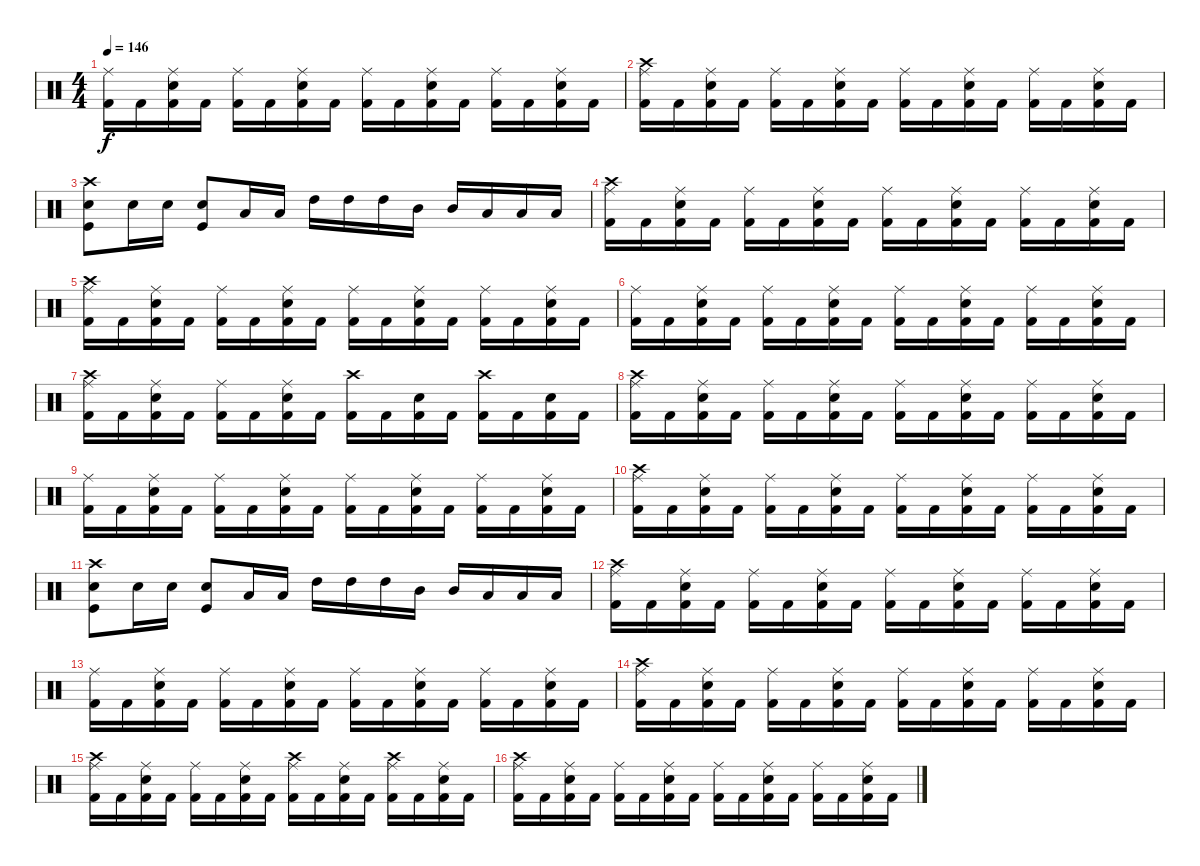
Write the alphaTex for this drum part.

\track "" {instrument percussion}
\staff {score}
\articulation defaults
\ts (4 4)
\tempo 146
\clef neutral
\ks c
("Ride (middle)" "Kick (hit) 2").16{dy f} "Kick (hit) 2".16 ("Electric Snare (hit)" "Ride (middle)" "Kick (hit) 2").16 "Kick (hit) 2".16 ("Ride (middle)" "Kick (hit) 2").16 "Kick (hit) 2".16 ("Electric Snare (hit)" "Ride (middle)" "Kick (hit) 2").16 "Kick (hit) 2".16 ("Ride (middle)" "Kick (hit) 2").16 "Kick (hit) 2".16 ("Electric Snare (hit)" "Ride (middle)" "Kick (hit) 2").16 "Kick (hit) 2".16 ("Ride (middle)" "Kick (hit) 2").16 "Kick (hit) 2".16 ("Electric Snare (hit)" "Ride (middle)" "Kick (hit) 2").16 "Kick (hit) 2".16 |
("Crash high (hit)" "Ride (middle)" "Kick (hit) 2").16 "Kick (hit) 2".16 ("Electric Snare (hit)" "Ride (middle)" "Kick (hit) 2").16 "Kick (hit) 2".16 ("Ride (middle)" "Kick (hit) 2").16 "Kick (hit) 2".16 ("Electric Snare (hit)" "Ride (middle)" "Kick (hit) 2").16 "Kick (hit) 2".16 ("Ride (middle)" "Kick (hit) 2").16 "Kick (hit) 2".16 ("Electric Snare (hit)" "Ride (middle)" "Kick (hit) 2").16 "Kick (hit) 2".16 ("Ride (middle)" "Kick (hit) 2").16 "Kick (hit) 2".16 ("Electric Snare (hit)" "Ride (middle)" "Kick (hit) 2").16 "Kick (hit) 2".16 |
("Crash high (hit)" "Kick (hit)" "Snare (hit) 2").8 "Snare (hit) 2".16 "Snare (hit) 2".16 ("Snare (hit) 2" "Kick (hit)").8 "Low Tom (hit)".16 "Low Tom (hit)".16 "High Tom (hit)".16 "High Tom (hit)".16 "High Tom (hit)".16 "Mid Tom (hit)".16 "Mid Tom (hit)".16 "Low Tom (hit)".16 "Low Tom (hit)".16 "Low Tom (hit)".16 |
("Crash high (hit)" "Ride (middle)" "Kick (hit) 2").16 "Kick (hit) 2".16 ("Electric Snare (hit)" "Ride (middle)" "Kick (hit) 2").16 "Kick (hit) 2".16 ("Ride (middle)" "Kick (hit) 2").16 "Kick (hit) 2".16 ("Electric Snare (hit)" "Ride (middle)" "Kick (hit) 2").16 "Kick (hit) 2".16 ("Ride (middle)" "Kick (hit) 2").16 "Kick (hit) 2".16 ("Electric Snare (hit)" "Ride (middle)" "Kick (hit) 2").16 "Kick (hit) 2".16 ("Ride (middle)" "Kick (hit) 2").16 "Kick (hit) 2".16 ("Electric Snare (hit)" "Ride (middle)" "Kick (hit) 2").16 "Kick (hit) 2".16 |
("Crash high (hit)" "Ride (middle)" "Kick (hit) 2").16 "Kick (hit) 2".16 ("Electric Snare (hit)" "Ride (middle)" "Kick (hit) 2").16 "Kick (hit) 2".16 ("Ride (middle)" "Kick (hit) 2").16 "Kick (hit) 2".16 ("Electric Snare (hit)" "Ride (middle)" "Kick (hit) 2").16 "Kick (hit) 2".16 ("Ride (middle)" "Kick (hit) 2").16 "Kick (hit) 2".16 ("Electric Snare (hit)" "Ride (middle)" "Kick (hit) 2").16 "Kick (hit) 2".16 ("Ride (middle)" "Kick (hit) 2").16 "Kick (hit) 2".16 ("Electric Snare (hit)" "Ride (middle)" "Kick (hit) 2").16 "Kick (hit) 2".16 |
("Ride (middle)" "Kick (hit) 2").16 "Kick (hit) 2".16 ("Electric Snare (hit)" "Ride (middle)" "Kick (hit) 2").16 "Kick (hit) 2".16 ("Ride (middle)" "Kick (hit) 2").16 "Kick (hit) 2".16 ("Electric Snare (hit)" "Ride (middle)" "Kick (hit) 2").16 "Kick (hit) 2".16 ("Ride (middle)" "Kick (hit) 2").16 "Kick (hit) 2".16 ("Electric Snare (hit)" "Ride (middle)" "Kick (hit) 2").16 "Kick (hit) 2".16 ("Ride (middle)" "Kick (hit) 2").16 "Kick (hit) 2".16 ("Electric Snare (hit)" "Ride (middle)" "Kick (hit) 2").16 "Kick (hit) 2".16 |
("Crash high (hit)" "Ride (middle)" "Kick (hit) 2").16 "Kick (hit) 2".16 ("Electric Snare (hit)" "Ride (middle)" "Kick (hit) 2").16 "Kick (hit) 2".16 ("Ride (middle)" "Kick (hit) 2").16 "Kick (hit) 2".16 ("Electric Snare (hit)" "Ride (middle)" "Kick (hit) 2").16 "Kick (hit) 2".16 ("Kick (hit) 2" "Crash high (hit)").16 "Kick (hit) 2".16 ("Electric Snare (hit)" "Kick (hit) 2").16 "Kick (hit) 2".16 ("Kick (hit) 2" "Crash high (hit)").16 "Kick (hit) 2".16 ("Electric Snare (hit)" "Kick (hit) 2").16 "Kick (hit) 2".16 |
("Crash high (hit)" "Ride (middle)" "Kick (hit) 2").16 "Kick (hit) 2".16 ("Electric Snare (hit)" "Ride (middle)" "Kick (hit) 2").16 "Kick (hit) 2".16 ("Ride (middle)" "Kick (hit) 2").16 "Kick (hit) 2".16 ("Electric Snare (hit)" "Ride (middle)" "Kick (hit) 2").16 "Kick (hit) 2".16 ("Ride (middle)" "Kick (hit) 2").16 "Kick (hit) 2".16 ("Electric Snare (hit)" "Ride (middle)" "Kick (hit) 2").16 "Kick (hit) 2".16 ("Ride (middle)" "Kick (hit) 2").16 "Kick (hit) 2".16 ("Electric Snare (hit)" "Ride (middle)" "Kick (hit) 2").16 "Kick (hit) 2".16 |
("Ride (middle)" "Kick (hit) 2").16 "Kick (hit) 2".16 ("Electric Snare (hit)" "Ride (middle)" "Kick (hit) 2").16 "Kick (hit) 2".16 ("Ride (middle)" "Kick (hit) 2").16 "Kick (hit) 2".16 ("Electric Snare (hit)" "Ride (middle)" "Kick (hit) 2").16 "Kick (hit) 2".16 ("Ride (middle)" "Kick (hit) 2").16 "Kick (hit) 2".16 ("Electric Snare (hit)" "Ride (middle)" "Kick (hit) 2").16 "Kick (hit) 2".16 ("Ride (middle)" "Kick (hit) 2").16 "Kick (hit) 2".16 ("Electric Snare (hit)" "Ride (middle)" "Kick (hit) 2").16 "Kick (hit) 2".16 |
("Crash high (hit)" "Ride (middle)" "Kick (hit) 2").16 "Kick (hit) 2".16 ("Electric Snare (hit)" "Ride (middle)" "Kick (hit) 2").16 "Kick (hit) 2".16 ("Ride (middle)" "Kick (hit) 2").16 "Kick (hit) 2".16 ("Electric Snare (hit)" "Ride (middle)" "Kick (hit) 2").16 "Kick (hit) 2".16 ("Ride (middle)" "Kick (hit) 2").16 "Kick (hit) 2".16 ("Electric Snare (hit)" "Ride (middle)" "Kick (hit) 2").16 "Kick (hit) 2".16 ("Ride (middle)" "Kick (hit) 2").16 "Kick (hit) 2".16 ("Electric Snare (hit)" "Ride (middle)" "Kick (hit) 2").16 "Kick (hit) 2".16 |
("Crash high (hit)" "Kick (hit)" "Snare (hit) 2").8 "Snare (hit) 2".16 "Snare (hit) 2".16 ("Snare (hit) 2" "Kick (hit)").8 "Low Tom (hit)".16 "Low Tom (hit)".16 "High Tom (hit)".16 "High Tom (hit)".16 "High Tom (hit)".16 "Mid Tom (hit)".16 "Mid Tom (hit)".16 "Low Tom (hit)".16 "Low Tom (hit)".16 "Low Tom (hit)".16 |
("Crash high (hit)" "Ride (middle)" "Kick (hit) 2").16 "Kick (hit) 2".16 ("Electric Snare (hit)" "Ride (middle)" "Kick (hit) 2").16 "Kick (hit) 2".16 ("Ride (middle)" "Kick (hit) 2").16 "Kick (hit) 2".16 ("Electric Snare (hit)" "Ride (middle)" "Kick (hit) 2").16 "Kick (hit) 2".16 ("Ride (middle)" "Kick (hit) 2").16 "Kick (hit) 2".16 ("Electric Snare (hit)" "Ride (middle)" "Kick (hit) 2").16 "Kick (hit) 2".16 ("Ride (middle)" "Kick (hit) 2").16 "Kick (hit) 2".16 ("Electric Snare (hit)" "Ride (middle)" "Kick (hit) 2").16 "Kick (hit) 2".16 |
("Ride (middle)" "Kick (hit) 2").16 "Kick (hit) 2".16 ("Electric Snare (hit)" "Ride (middle)" "Kick (hit) 2").16 "Kick (hit) 2".16 ("Ride (middle)" "Kick (hit) 2").16 "Kick (hit) 2".16 ("Electric Snare (hit)" "Ride (middle)" "Kick (hit) 2").16 "Kick (hit) 2".16 ("Ride (middle)" "Kick (hit) 2").16 "Kick (hit) 2".16 ("Electric Snare (hit)" "Ride (middle)" "Kick (hit) 2").16 "Kick (hit) 2".16 ("Ride (middle)" "Kick (hit) 2").16 "Kick (hit) 2".16 ("Electric Snare (hit)" "Ride (middle)" "Kick (hit) 2").16 "Kick (hit) 2".16 |
("Crash high (hit)" "Ride (middle)" "Kick (hit) 2").16 "Kick (hit) 2".16 ("Electric Snare (hit)" "Ride (middle)" "Kick (hit) 2").16 "Kick (hit) 2".16 ("Ride (middle)" "Kick (hit) 2").16 "Kick (hit) 2".16 ("Electric Snare (hit)" "Ride (middle)" "Kick (hit) 2").16 "Kick (hit) 2".16 ("Ride (middle)" "Kick (hit) 2").16 "Kick (hit) 2".16 ("Electric Snare (hit)" "Ride (middle)" "Kick (hit) 2").16 "Kick (hit) 2".16 ("Ride (middle)" "Kick (hit) 2").16 "Kick (hit) 2".16 ("Electric Snare (hit)" "Ride (middle)" "Kick (hit) 2").16 "Kick (hit) 2".16 |
("Crash high (hit)" "Ride (middle)" "Kick (hit) 2").16 "Kick (hit) 2".16 ("Electric Snare (hit)" "Ride (middle)" "Kick (hit) 2").16 "Kick (hit) 2".16 ("Ride (middle)" "Kick (hit) 2").16 "Kick (hit) 2".16 ("Electric Snare (hit)" "Ride (middle)" "Kick (hit) 2").16 "Kick (hit) 2".16 ("Ride (middle)" "Kick (hit) 2" "Crash high (hit)").16 "Kick (hit) 2".16 ("Electric Snare (hit)" "Ride (middle)" "Kick (hit) 2").16 "Kick (hit) 2".16 ("Ride (middle)" "Kick (hit) 2" "Crash high (hit)").16 "Kick (hit) 2".16 ("Electric Snare (hit)" "Ride (middle)" "Kick (hit) 2").16 "Kick (hit) 2".16 |
("Crash high (hit)" "Ride (middle)" "Kick (hit) 2").16 "Kick (hit) 2".16 ("Electric Snare (hit)" "Ride (middle)" "Kick (hit) 2").16 "Kick (hit) 2".16 ("Ride (middle)" "Kick (hit) 2").16 "Kick (hit) 2".16 ("Electric Snare (hit)" "Ride (middle)" "Kick (hit) 2").16 "Kick (hit) 2".16 ("Ride (middle)" "Kick (hit) 2").16 "Kick (hit) 2".16 ("Electric Snare (hit)" "Ride (middle)" "Kick (hit) 2").16 "Kick (hit) 2".16 ("Ride (middle)" "Kick (hit) 2").16 "Kick (hit) 2".16 ("Electric Snare (hit)" "Ride (middle)" "Kick (hit) 2").16 "Kick (hit) 2".16
